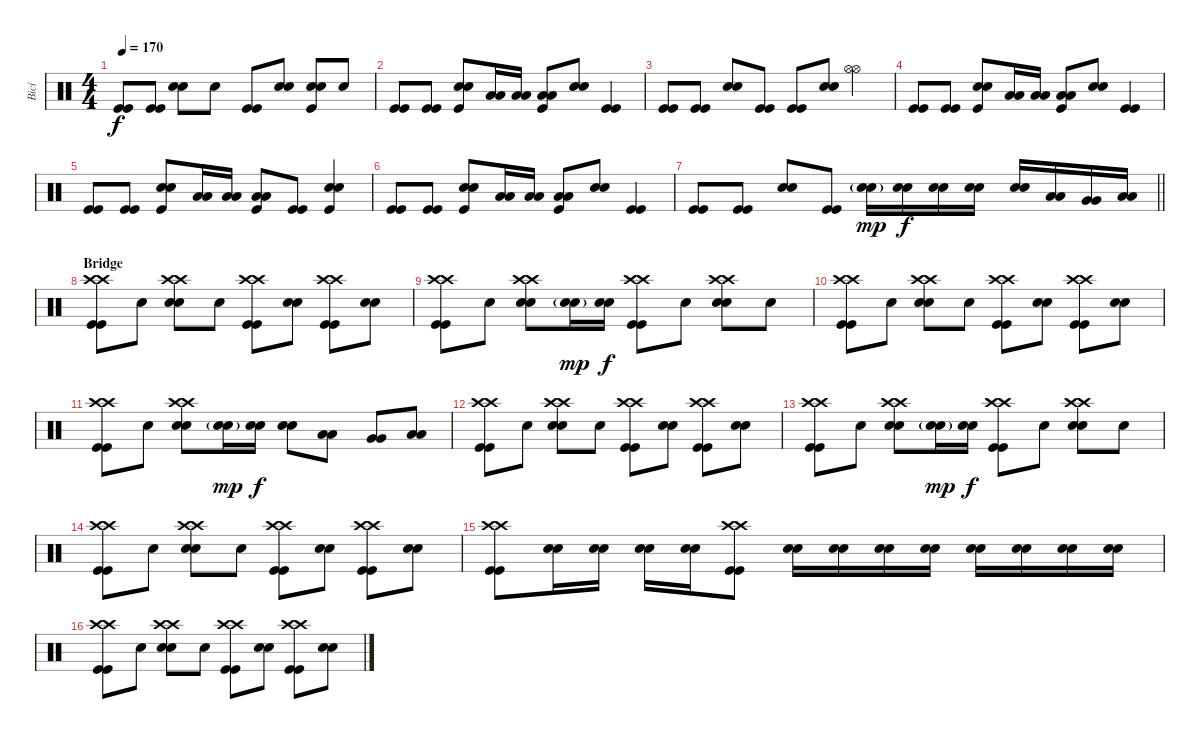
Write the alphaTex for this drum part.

\track ("Bicí" "Bicí") {instrument percussion}
\staff {score}
\articulation defaults
\ts (4 4)
\tempo 170
\clef neutral
\ks c
("Kick (hit)" "Kick (hit)").8{dy f} ("Kick (hit)" "Kick (hit)").8 ("Electric Snare (hit)" "Electric Snare (hit)").8 "Snare (hit)".8 ("Kick (hit)" "Kick (hit)").8 ("Electric Snare (hit)" "Electric Snare (hit)").8 ("Electric Snare (hit)" "Electric Snare (hit)" "Kick (hit)").8 "Snare (hit)".8 |
("Kick (hit)" "Kick (hit)").8 ("Kick (hit)" "Kick (hit)").8 ("Electric Snare (hit)" "Electric Snare (hit)" "Kick (hit)").8 ("Low Tom (hit)" "Low Tom (hit)").16 ("Low Tom (hit)" "Low Tom (hit)").16 ("Low Tom (hit)" "Low Tom (hit)" "Kick (hit)").8 ("Electric Snare (hit)" "Electric Snare (hit)").8 ("Kick (hit)" "Kick (hit)").4 |
("Kick (hit)" "Kick (hit)").8 ("Kick (hit)" "Kick (hit)").8 ("Electric Snare (hit)" "Electric Snare (hit)").8 ("Kick (hit)" "Kick (hit)").8 ("Kick (hit)" "Kick (hit)").8 ("Electric Snare (hit)" "Electric Snare (hit)").8 ("Hi-Hat (open)" "Hi-Hat (open)").4 |
("Kick (hit)" "Kick (hit)").8 ("Kick (hit)" "Kick (hit)").8 ("Electric Snare (hit)" "Electric Snare (hit)" "Kick (hit)").8 ("Low Tom (hit)" "Low Tom (hit)").16 ("Low Tom (hit)" "Low Tom (hit)").16 ("Low Tom (hit)" "Low Tom (hit)" "Kick (hit)").8 ("Electric Snare (hit)" "Electric Snare (hit)").8 ("Kick (hit)" "Kick (hit)").4 |
("Kick (hit)" "Kick (hit)").8 ("Kick (hit)" "Kick (hit)").8 ("Electric Snare (hit)" "Electric Snare (hit)" "Kick (hit)").8 ("Low Tom (hit)" "Low Tom (hit)").16 ("Low Tom (hit)" "Low Tom (hit)").16 ("Low Tom (hit)" "Low Tom (hit)" "Kick (hit)").8 ("Kick (hit)" "Kick (hit)").8 ("Electric Snare (hit)" "Electric Snare (hit)" "Kick (hit)").4 |
("Kick (hit)" "Kick (hit)").8 ("Kick (hit)" "Kick (hit)").8 ("Electric Snare (hit)" "Electric Snare (hit)" "Kick (hit)").8 ("Low Tom (hit)" "Low Tom (hit)").16 ("Low Tom (hit)" "Low Tom (hit)").16 ("Low Tom (hit)" "Low Tom (hit)" "Kick (hit)").8 ("Electric Snare (hit)" "Electric Snare (hit)").8 ("Kick (hit)" "Kick (hit)").4 |
\barLineRight lightlight
("Kick (hit)" "Kick (hit)").8 ("Kick (hit)" "Kick (hit)").8 ("Electric Snare (hit)" "Electric Snare (hit)").8 ("Kick (hit)" "Kick (hit)").8 ("Electric Snare (hit)"{g} "Electric Snare (hit)"{g}).16{dy mp} ("Electric Snare (hit)" "Electric Snare (hit)").16{dy f} ("Electric Snare (hit)" "Electric Snare (hit)").16 ("Electric Snare (hit)" "Electric Snare (hit)").16 ("Electric Snare (hit)" "Electric Snare (hit)").16 ("Low Tom (hit)" "Low Tom (hit)").16 ("Very Low Tom (hit)" "Very Low Tom (hit)").16 ("Low Floor Tom (hit)" "Low Floor Tom (hit)").16 |
\section ("" "Bridge")
("Crash high (hit)" "Crash high (hit)" "Kick (hit)" "Kick (hit)").8 "Snare (hit)".8 ("Crash high (hit)" "Crash high (hit)" "Electric Snare (hit)" "Electric Snare (hit)").8 "Snare (hit)".8 ("Crash high (hit)" "Crash high (hit)" "Kick (hit)" "Kick (hit)").8 ("Electric Snare (hit)" "Electric Snare (hit)").8 ("Crash high (hit)" "Crash high (hit)" "Kick (hit)" "Kick (hit)").8 ("Electric Snare (hit)" "Electric Snare (hit)").8 |
("Crash high (hit)" "Crash high (hit)" "Kick (hit)" "Kick (hit)").8 "Snare (hit)".8 ("Crash high (hit)" "Crash high (hit)" "Electric Snare (hit)" "Electric Snare (hit)").8 ("Electric Snare (hit)"{g} "Electric Snare (hit)"{g}).16{dy mp} ("Electric Snare (hit)" "Electric Snare (hit)").16{dy f} ("Crash high (hit)" "Crash high (hit)" "Kick (hit)" "Kick (hit)").8 "Snare (hit)".8 ("Crash high (hit)" "Crash high (hit)" "Electric Snare (hit)" "Electric Snare (hit)").8 "Snare (hit)".8 |
("Crash high (hit)" "Crash high (hit)" "Kick (hit)" "Kick (hit)").8 "Snare (hit)".8 ("Crash high (hit)" "Crash high (hit)" "Electric Snare (hit)" "Electric Snare (hit)").8 "Snare (hit)".8 ("Crash high (hit)" "Crash high (hit)" "Kick (hit)" "Kick (hit)").8 ("Electric Snare (hit)" "Electric Snare (hit)").8 ("Crash high (hit)" "Crash high (hit)" "Kick (hit)" "Kick (hit)").8 ("Electric Snare (hit)" "Electric Snare (hit)").8 |
("Crash high (hit)" "Crash high (hit)" "Kick (hit)" "Kick (hit)").8 "Snare (hit)".8 ("Crash high (hit)" "Crash high (hit)" "Electric Snare (hit)" "Electric Snare (hit)").8 ("Electric Snare (hit)"{g} "Electric Snare (hit)"{g}).16{dy mp} ("Electric Snare (hit)" "Electric Snare (hit)").16{dy f} ("Electric Snare (hit)" "Electric Snare (hit)").8 ("Low Tom (hit)" "Low Tom (hit)").8 ("Very Low Tom (hit)" "Very Low Tom (hit)").8 ("Low Floor Tom (hit)" "Low Floor Tom (hit)").8 |
("Crash high (hit)" "Crash high (hit)" "Kick (hit)" "Kick (hit)").8 "Snare (hit)".8 ("Crash high (hit)" "Crash high (hit)" "Electric Snare (hit)" "Electric Snare (hit)").8 "Snare (hit)".8 ("Crash high (hit)" "Crash high (hit)" "Kick (hit)" "Kick (hit)").8 ("Electric Snare (hit)" "Electric Snare (hit)").8 ("Crash high (hit)" "Crash high (hit)" "Kick (hit)" "Kick (hit)").8 ("Electric Snare (hit)" "Electric Snare (hit)").8 |
("Crash high (hit)" "Crash high (hit)" "Kick (hit)" "Kick (hit)").8 "Snare (hit)".8 ("Crash high (hit)" "Crash high (hit)" "Electric Snare (hit)" "Electric Snare (hit)").8 ("Electric Snare (hit)"{g} "Electric Snare (hit)"{g}).16{dy mp} ("Electric Snare (hit)" "Electric Snare (hit)").16{dy f} ("Crash high (hit)" "Crash high (hit)" "Kick (hit)" "Kick (hit)").8 "Snare (hit)".8 ("Crash high (hit)" "Crash high (hit)" "Electric Snare (hit)" "Electric Snare (hit)").8 "Snare (hit)".8 |
("Crash high (hit)" "Crash high (hit)" "Kick (hit)" "Kick (hit)").8 "Snare (hit)".8 ("Crash high (hit)" "Crash high (hit)" "Electric Snare (hit)" "Electric Snare (hit)").8 "Snare (hit)".8 ("Crash high (hit)" "Crash high (hit)" "Kick (hit)" "Kick (hit)").8 ("Electric Snare (hit)" "Electric Snare (hit)").8 ("Crash high (hit)" "Crash high (hit)" "Kick (hit)" "Kick (hit)").8 ("Electric Snare (hit)" "Electric Snare (hit)").8 |
("Crash high (hit)" "Crash high (hit)" "Kick (hit)" "Kick (hit)").8 ("Electric Snare (hit)" "Electric Snare (hit)").16 ("Electric Snare (hit)" "Electric Snare (hit)").16 ("Electric Snare (hit)" "Electric Snare (hit)").16 ("Electric Snare (hit)" "Electric Snare (hit)").16 ("Crash high (hit)" "Crash high (hit)" "Kick (hit)" "Kick (hit)").8 ("Electric Snare (hit)" "Electric Snare (hit)").16 ("Electric Snare (hit)" "Electric Snare (hit)").16 ("Electric Snare (hit)" "Electric Snare (hit)").16 ("Electric Snare (hit)" "Electric Snare (hit)").16 ("Electric Snare (hit)" "Electric Snare (hit)").16 ("Electric Snare (hit)" "Electric Snare (hit)").16 ("Electric Snare (hit)" "Electric Snare (hit)").16 ("Electric Snare (hit)" "Electric Snare (hit)").16 |
("Crash high (hit)" "Crash high (hit)" "Kick (hit)" "Kick (hit)").8 "Snare (hit)".8 ("Crash high (hit)" "Crash high (hit)" "Electric Snare (hit)" "Electric Snare (hit)").8 "Snare (hit)".8 ("Crash high (hit)" "Crash high (hit)" "Kick (hit)" "Kick (hit)").8 ("Electric Snare (hit)" "Electric Snare (hit)").8 ("Crash high (hit)" "Crash high (hit)" "Kick (hit)" "Kick (hit)").8 ("Electric Snare (hit)" "Electric Snare (hit)").8
